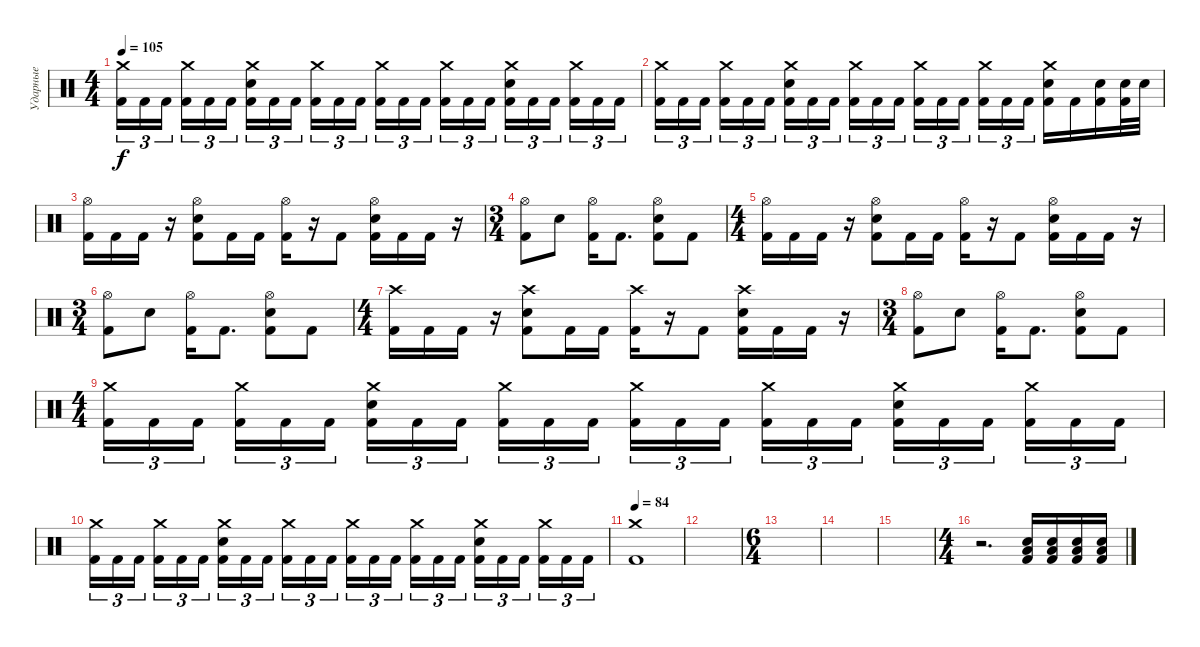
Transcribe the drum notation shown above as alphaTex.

\track ("Ударные" "Ударные") {instrument percussion}
\staff {score}
\articulation defaults
\ts (4 4)
\tempo 105
\clef neutral
\ks c
("Crash medium (hit)" "Kick (hit) 2").16{tu (3 2) dy f} "Kick (hit) 2".16{tu (3 2)} "Kick (hit) 2".16{tu (3 2) beam splitsecondary} ("Crash medium (hit)" "Kick (hit) 2").16{tu (3 2)} "Kick (hit) 2".16{tu (3 2)} "Kick (hit) 2".16{tu (3 2)} ("Crash medium (hit)" "Snare (hit) 2" "Kick (hit) 2").16{tu (3 2)} "Kick (hit) 2".16{tu (3 2)} "Kick (hit) 2".16{tu (3 2) beam splitsecondary} ("Crash medium (hit)" "Kick (hit) 2").16{tu (3 2)} "Kick (hit) 2".16{tu (3 2)} "Kick (hit) 2".16{tu (3 2)} ("Crash medium (hit)" "Kick (hit) 2").16{tu (3 2)} "Kick (hit) 2".16{tu (3 2)} "Kick (hit) 2".16{tu (3 2) beam splitsecondary} ("Crash medium (hit)" "Kick (hit) 2").16{tu (3 2)} "Kick (hit) 2".16{tu (3 2)} "Kick (hit) 2".16{tu (3 2)} ("Crash medium (hit)" "Snare (hit) 2" "Kick (hit) 2").16{tu (3 2)} "Kick (hit) 2".16{tu (3 2)} "Kick (hit) 2".16{tu (3 2) beam splitsecondary} ("Crash medium (hit)" "Kick (hit) 2").16{tu (3 2)} "Kick (hit) 2".16{tu (3 2)} "Kick (hit) 2".16{tu (3 2)} |
("Crash medium (hit)" "Kick (hit) 2").16{tu (3 2)} "Kick (hit) 2".16{tu (3 2)} "Kick (hit) 2".16{tu (3 2) beam splitsecondary} ("Crash medium (hit)" "Kick (hit) 2").16{tu (3 2)} "Kick (hit) 2".16{tu (3 2)} "Kick (hit) 2".16{tu (3 2)} ("Crash medium (hit)" "Snare (hit) 2" "Kick (hit) 2").16{tu (3 2)} "Kick (hit) 2".16{tu (3 2)} "Kick (hit) 2".16{tu (3 2) beam splitsecondary} ("Crash medium (hit)" "Kick (hit) 2").16{tu (3 2)} "Kick (hit) 2".16{tu (3 2)} "Kick (hit) 2".16{tu (3 2)} ("Crash medium (hit)" "Kick (hit) 2").16{tu (3 2)} "Kick (hit) 2".16{tu (3 2)} "Kick (hit) 2".16{tu (3 2) beam splitsecondary} ("Crash medium (hit)" "Kick (hit) 2").16{tu (3 2)} "Kick (hit) 2".16{tu (3 2)} "Kick (hit) 2".16{tu (3 2)} ("Crash medium (hit)" "Snare (hit) 2" "Kick (hit) 2").16 "Kick (hit) 2".16 ("Snare (hit) 2" "Kick (hit) 2").16 ("Snare (hit) 2" "Kick (hit) 2").32 "Snare (hit) 2".32 |
("Hi-Hat (open)" "Kick (hit) 2").16 "Kick (hit) 2".16 "Kick (hit) 2".16 r.16 ("Hi-Hat (open)" "Snare (hit) 2" "Kick (hit) 2").8 "Kick (hit) 2".16 "Kick (hit) 2".16 ("Hi-Hat (open)" "Kick (hit) 2").16 r.16 "Kick (hit) 2".8 ("Hi-Hat (open)" "Snare (hit) 2" "Kick (hit) 2").16 "Kick (hit) 2".16 "Kick (hit) 2".16 r.16 |
\ts (3 4)
("Hi-Hat (open)" "Kick (hit) 2").8 "Snare (hit) 2".8 ("Hi-Hat (open)" "Kick (hit) 2").16 "Kick (hit) 2".8{d} ("Hi-Hat (open)" "Snare (hit) 2" "Kick (hit) 2").8 "Kick (hit) 2".8 |
\ts (4 4)
("Hi-Hat (open)" "Kick (hit) 2").16 "Kick (hit) 2".16 "Kick (hit) 2".16 r.16 ("Hi-Hat (open)" "Snare (hit) 2" "Kick (hit) 2").8 "Kick (hit) 2".16 "Kick (hit) 2".16 ("Hi-Hat (open)" "Kick (hit) 2").16 r.16 "Kick (hit) 2".8 ("Hi-Hat (open)" "Snare (hit) 2" "Kick (hit) 2").16 "Kick (hit) 2".16 "Kick (hit) 2".16 r.16 |
\ts (3 4)
("Hi-Hat (open)" "Kick (hit) 2").8 "Snare (hit) 2".8 ("Hi-Hat (open)" "Kick (hit) 2").16 "Kick (hit) 2".8{d} ("Hi-Hat (open)" "Snare (hit) 2" "Kick (hit) 2").8 "Kick (hit) 2".8 |
\ts (4 4)
("Crash high (hit)" "Kick (hit) 2").16 "Kick (hit) 2".16 "Kick (hit) 2".16 r.16 ("Crash high (hit)" "Snare (hit) 2" "Kick (hit) 2").8 "Kick (hit) 2".16 "Kick (hit) 2".16 ("Crash high (hit)" "Kick (hit) 2").16 r.16 "Kick (hit) 2".8 ("Crash high (hit)" "Snare (hit) 2" "Kick (hit) 2").16 "Kick (hit) 2".16 "Kick (hit) 2".16 r.16 |
\ts (3 4)
("Hi-Hat (open)" "Kick (hit) 2").8 "Snare (hit) 2".8 ("Hi-Hat (open)" "Kick (hit) 2").16 "Kick (hit) 2".8{d} ("Hi-Hat (open)" "Snare (hit) 2" "Kick (hit) 2").8 "Kick (hit) 2".8 |
\ts (4 4)
("Crash medium (hit)" "Kick (hit) 2").16{tu (3 2)} "Kick (hit) 2".16{tu (3 2)} "Kick (hit) 2".16{tu (3 2) beam splitsecondary} ("Crash medium (hit)" "Kick (hit) 2").16{tu (3 2)} "Kick (hit) 2".16{tu (3 2)} "Kick (hit) 2".16{tu (3 2)} ("Crash medium (hit)" "Snare (hit) 2" "Kick (hit) 2").16{tu (3 2)} "Kick (hit) 2".16{tu (3 2)} "Kick (hit) 2".16{tu (3 2) beam splitsecondary} ("Crash medium (hit)" "Kick (hit) 2").16{tu (3 2)} "Kick (hit) 2".16{tu (3 2)} "Kick (hit) 2".16{tu (3 2)} ("Crash medium (hit)" "Kick (hit) 2").16{tu (3 2)} "Kick (hit) 2".16{tu (3 2)} "Kick (hit) 2".16{tu (3 2) beam splitsecondary} ("Crash medium (hit)" "Kick (hit) 2").16{tu (3 2)} "Kick (hit) 2".16{tu (3 2)} "Kick (hit) 2".16{tu (3 2)} ("Crash medium (hit)" "Snare (hit) 2" "Kick (hit) 2").16{tu (3 2)} "Kick (hit) 2".16{tu (3 2)} "Kick (hit) 2".16{tu (3 2) beam splitsecondary} ("Crash medium (hit)" "Kick (hit) 2").16{tu (3 2)} "Kick (hit) 2".16{tu (3 2)} "Kick (hit) 2".16{tu (3 2)} |
("Crash medium (hit)" "Kick (hit) 2").16{tu (3 2)} "Kick (hit) 2".16{tu (3 2)} "Kick (hit) 2".16{tu (3 2) beam splitsecondary} ("Crash medium (hit)" "Kick (hit) 2").16{tu (3 2)} "Kick (hit) 2".16{tu (3 2)} "Kick (hit) 2".16{tu (3 2)} ("Crash medium (hit)" "Snare (hit) 2" "Kick (hit) 2").16{tu (3 2)} "Kick (hit) 2".16{tu (3 2)} "Kick (hit) 2".16{tu (3 2) beam splitsecondary} ("Crash medium (hit)" "Kick (hit) 2").16{tu (3 2)} "Kick (hit) 2".16{tu (3 2)} "Kick (hit) 2".16{tu (3 2)} ("Crash medium (hit)" "Kick (hit) 2").16{tu (3 2)} "Kick (hit) 2".16{tu (3 2)} "Kick (hit) 2".16{tu (3 2) beam splitsecondary} ("Crash medium (hit)" "Kick (hit) 2").16{tu (3 2)} "Kick (hit) 2".16{tu (3 2)} "Kick (hit) 2".16{tu (3 2)} ("Crash medium (hit)" "Snare (hit) 2" "Kick (hit) 2").16{tu (3 2)} "Kick (hit) 2".16{tu (3 2)} "Kick (hit) 2".16{tu (3 2) beam splitsecondary} ("Crash medium (hit)" "Kick (hit) 2").16{tu (3 2)} "Kick (hit) 2".16{tu (3 2)} "Kick (hit) 2".16{tu (3 2)} |
\tempo 84
("Crash medium (hit)" "Kick (hit) 2").1 |
|
\ts (6 4)
|
|
|
\ts (4 4)
r.2{d} ("Low Tom (hit)" "Snare (hit) 2" "Kick (hit) 2").16 ("Low Tom (hit)" "Snare (hit) 2" "Kick (hit) 2").16 ("Low Tom (hit)" "Snare (hit) 2" "Kick (hit) 2").16 ("Low Tom (hit)" "Snare (hit) 2" "Kick (hit) 2").16
